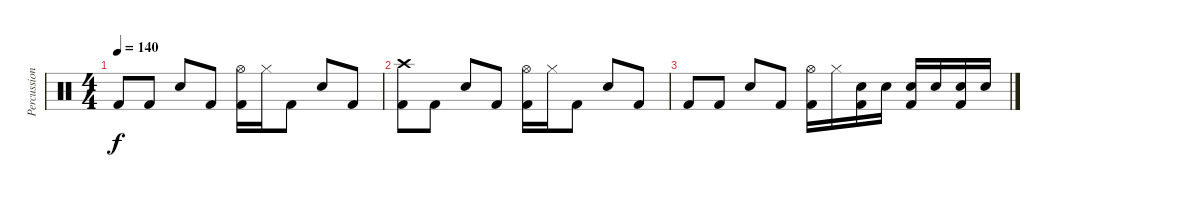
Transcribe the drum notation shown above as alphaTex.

\track ("Percussion" "Percussion") {instrument percussion}
\staff {score}
\articulation defaults
\ts (4 4)
\tempo 140
\clef neutral
\ks c "Kick (hit) 2".8{dy f} "Kick (hit) 2".8 "Snare (hit) 2".8 "Kick (hit) 2".8
("Hi-Hat (open)" "Kick (hit) 2").16 "Hi-Hat (closed)".16 "Kick (hit) 2".8 "Snare (hit) 2".8 "Kick (hit) 2".8 |
("Crash high (hit)" "Kick (hit) 2").8 "Kick (hit) 2".8 "Snare (hit) 2".8 "Kick (hit) 2".8 ("Hi-Hat (open)" "Kick (hit) 2").16 "Hi-Hat (closed)".16 "Kick (hit) 2".8 "Snare (hit) 2".8 "Kick (hit) 2".8 |
"Kick (hit) 2".8 "Kick (hit) 2".8 "Snare (hit) 2".8 "Kick (hit) 2".8 ("Hi-Hat (open)" "Kick (hit) 2").16 "Hi-Hat (closed)".16 ("Snare (hit) 2" "Kick (hit) 2").16 "Snare (hit) 2".16 ("Snare (hit) 2" "Kick (hit) 2").16 "Snare (hit) 2".16 ("Snare (hit) 2" "Kick (hit) 2").16 "Snare (hit) 2".16
